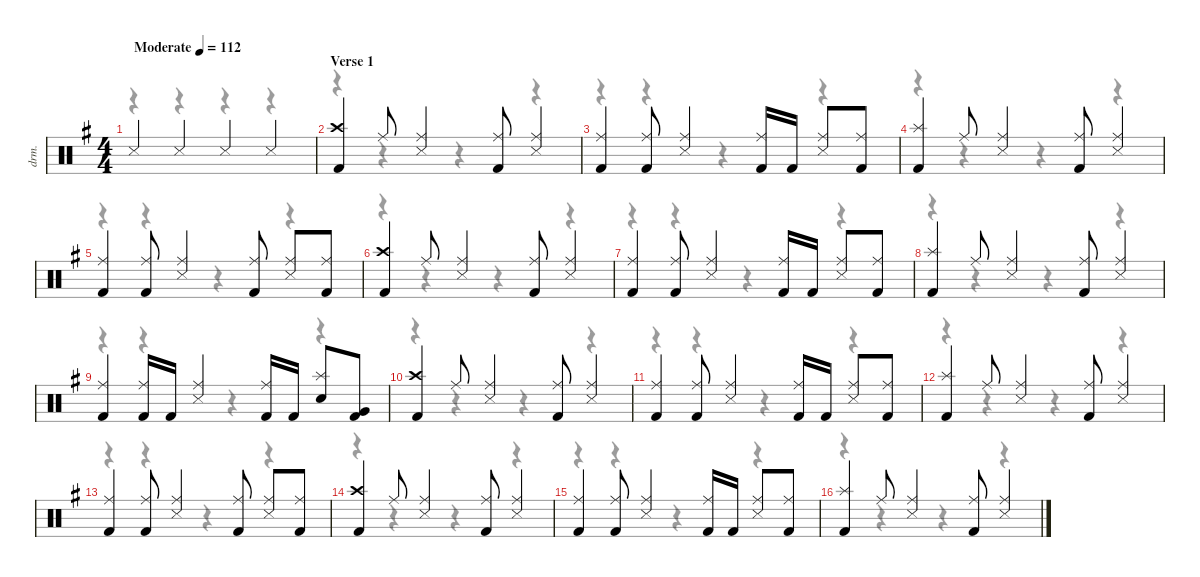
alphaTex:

\defaultSystemsLayout 4
\hideDynamics
\bracketExtendMode nobrackets
\track ("Drums" "drm.") {instrument percussion}
\staff {score}
\articulation defaults
\voice
\ts (4 4)
\beaming (8 2 2 2 2)
\tempo (112 "Moderate")
\clef neutral
\ks g "Snare (side stick) 3"{acc forcenatural}.4{dy f} "Snare (side stick) 3"{acc forcenatural}.4 "Snare (side stick) 3"{acc forcenatural}.4 "Snare (side stick) 3"{acc forcenatural}.4
|
\section ("" "Verse 1")
("Kick (hit) 2"{acc forcenatural} "Crash high (hit)"{acc forcenatural}).4{dy mf} "Ride (middle)"{acc forcenatural}.8 ("Ride (middle)"{acc forcenatural} "Snare (side stick) 3"{acc forcenatural}).4 ("Kick (hit) 2"{acc forcenatural} "Ride (middle)"{acc forcenatural}).8 ("Snare (side stick) 3"{acc forcenatural} "Ride (middle)"{acc forcenatural}).4 |
("Kick (hit) 2"{acc forcenatural} "Ride (middle)"{acc forcenatural}).4 ("Kick (hit) 2"{acc forcenatural} "Ride (middle)"{acc forcenatural}).8{dy f} ("Snare (side stick) 3"{acc forcenatural} "Ride (middle)"{acc forcenatural}).4{dy mf} ("Kick (hit) 2"{acc forcenatural} "Ride (middle)"{acc forcenatural}).16{dy f} "Kick (hit) 2"{acc forcenatural}.16{dy mf} ("Ride (middle)"{acc forcenatural} "Snare (side stick) 3"{acc forcenatural}).8 ("Kick (hit) 2"{acc forcenatural} "Ride (middle)"{acc forcenatural}).8 |
("Kick (hit) 2"{acc forcenatural} "Splash (hit)"{acc forcenatural}).4 "Ride (middle)"{acc forcenatural}.8 ("Ride (middle)"{acc forcenatural} "Snare (side stick) 3"{acc forcenatural}).4 ("Kick (hit) 2"{acc forcenatural} "Ride (middle)"{acc forcenatural}).8 ("Snare (side stick) 3"{acc forcenatural} "Ride (middle)"{acc forcenatural}).4 |
("Kick (hit) 2"{acc forcenatural} "Ride (middle)"{acc forcenatural}).4 ("Kick (hit) 2"{acc forcenatural} "Ride (middle)"{acc forcenatural}).8{dy f} ("Snare (side stick) 3"{acc forcenatural} "Ride (middle)"{acc forcenatural}).4{dy mf} ("Kick (hit) 2"{acc forcenatural} "Ride (middle)"{acc forcenatural}).8{dy f} ("Ride (middle)"{acc forcenatural} "Snare (side stick) 3"{acc forcenatural}).8{dy mf} ("Kick (hit) 2"{acc forcenatural} "Ride (middle)"{acc forcenatural}).8 |
("Kick (hit) 2"{acc forcenatural} "Crash high (hit)"{acc forcenatural}).4 "Ride (middle)"{acc forcenatural}.8 ("Ride (middle)"{acc forcenatural} "Snare (side stick) 3"{acc forcenatural}).4 ("Kick (hit) 2"{acc forcenatural} "Ride (middle)"{acc forcenatural}).8 ("Snare (side stick) 3"{acc forcenatural} "Ride (middle)"{acc forcenatural}).4 |
("Kick (hit) 2"{acc forcenatural} "Ride (middle)"{acc forcenatural}).4 ("Kick (hit) 2"{acc forcenatural} "Ride (middle)"{acc forcenatural}).8{dy f} ("Snare (side stick) 3"{acc forcenatural} "Ride (middle)"{acc forcenatural}).4{dy mf} ("Kick (hit) 2"{acc forcenatural} "Ride (middle)"{acc forcenatural}).16{dy f} "Kick (hit) 2"{acc forcenatural}.16{dy mf} ("Ride (middle)"{acc forcenatural} "Snare (side stick) 3"{acc forcenatural}).8 ("Kick (hit) 2"{acc forcenatural} "Ride (middle)"{acc forcenatural}).8 |
("Kick (hit) 2"{acc forcenatural} "Splash (hit)"{acc forcenatural}).4 "Ride (middle)"{acc forcenatural}.8 ("Ride (middle)"{acc forcenatural} "Snare (side stick) 3"{acc forcenatural}).4 ("Kick (hit) 2"{acc forcenatural} "Ride (middle)"{acc forcenatural}).8 ("Snare (side stick) 3"{acc forcenatural} "Ride (middle)"{acc forcenatural}).4 |
("Kick (hit) 2"{acc forcenatural} "Ride (middle)"{acc forcenatural}).4 ("Ride (middle)"{acc forcenatural} "Kick (hit) 2"{acc forcenatural}).16 "Kick (hit) 2"{acc forcenatural}.16 ("Snare (side stick) 3"{acc forcenatural} "Ride (middle)"{acc forcenatural}).4 ("Ride (middle)"{acc forcenatural} "Kick (hit) 2"{acc forcenatural}).16 "Kick (hit) 2"{acc forcenatural}.16 ("Snare (hit) 2"{acc forcenatural} "Splash (hit)"{acc forcenatural}).8 ("Kick (hit) 2"{acc forcenatural} "Very Low Tom (hit)"{acc forcenatural}).8 |
("Kick (hit) 2"{acc forcenatural} "Crash high (hit)"{acc forcenatural}).4 "Ride (middle)"{acc forcenatural}.8 ("Ride (middle)"{acc forcenatural} "Snare (side stick) 3"{acc forcenatural}).4 ("Kick (hit) 2"{acc forcenatural} "Ride (middle)"{acc forcenatural}).8 ("Snare (side stick) 3"{acc forcenatural} "Ride (middle)"{acc forcenatural}).4 |
("Kick (hit) 2"{acc forcenatural} "Ride (middle)"{acc forcenatural}).4 ("Kick (hit) 2"{acc forcenatural} "Ride (middle)"{acc forcenatural}).8{dy f} ("Snare (side stick) 3"{acc forcenatural} "Ride (middle)"{acc forcenatural}).4{dy mf} ("Kick (hit) 2"{acc forcenatural} "Ride (middle)"{acc forcenatural}).16{dy f} "Kick (hit) 2"{acc forcenatural}.16{dy mf} ("Ride (middle)"{acc forcenatural} "Snare (side stick) 3"{acc forcenatural}).8 ("Kick (hit) 2"{acc forcenatural} "Ride (middle)"{acc forcenatural}).8 |
("Kick (hit) 2"{acc forcenatural} "Splash (hit)"{acc forcenatural}).4 "Ride (middle)"{acc forcenatural}.8 ("Ride (middle)"{acc forcenatural} "Snare (side stick) 3"{acc forcenatural}).4 ("Kick (hit) 2"{acc forcenatural} "Ride (middle)"{acc forcenatural}).8 ("Snare (side stick) 3"{acc forcenatural} "Ride (middle)"{acc forcenatural}).4 |
("Kick (hit) 2"{acc forcenatural} "Ride (middle)"{acc forcenatural}).4 ("Kick (hit) 2"{acc forcenatural} "Ride (middle)"{acc forcenatural}).8{dy f} ("Snare (side stick) 3"{acc forcenatural} "Ride (middle)"{acc forcenatural}).4{dy mf} ("Kick (hit) 2"{acc forcenatural} "Ride (middle)"{acc forcenatural}).8{dy f} ("Ride (middle)"{acc forcenatural} "Snare (side stick) 3"{acc forcenatural}).8{dy mf} ("Kick (hit) 2"{acc forcenatural} "Ride (middle)"{acc forcenatural}).8 |
("Kick (hit) 2"{acc forcenatural} "Crash high (hit)"{acc forcenatural}).4 "Ride (middle)"{acc forcenatural}.8 ("Ride (middle)"{acc forcenatural} "Snare (side stick) 3"{acc forcenatural}).4 ("Kick (hit) 2"{acc forcenatural} "Ride (middle)"{acc forcenatural}).8 ("Snare (side stick) 3"{acc forcenatural} "Ride (middle)"{acc forcenatural}).4 |
("Kick (hit) 2"{acc forcenatural} "Ride (middle)"{acc forcenatural}).4 ("Kick (hit) 2"{acc forcenatural} "Ride (middle)"{acc forcenatural}).8{dy f} ("Snare (side stick) 3"{acc forcenatural} "Ride (middle)"{acc forcenatural}).4{dy mf} ("Kick (hit) 2"{acc forcenatural} "Ride (middle)"{acc forcenatural}).16{dy f} "Kick (hit) 2"{acc forcenatural}.16{dy mf} ("Ride (middle)"{acc forcenatural} "Snare (side stick) 3"{acc forcenatural}).8 ("Kick (hit) 2"{acc forcenatural} "Ride (middle)"{acc forcenatural}).8 |
("Kick (hit) 2"{acc forcenatural} "Splash (hit)"{acc forcenatural}).4 "Ride (middle)"{acc forcenatural}.8 ("Ride (middle)"{acc forcenatural} "Snare (side stick) 3"{acc forcenatural}).4 ("Kick (hit) 2"{acc forcenatural} "Ride (middle)"{acc forcenatural}).8 ("Snare (side stick) 3"{acc forcenatural} "Ride (middle)"{acc forcenatural}).4
\voice
\clef neutral
\ottava regular
\simile none
\ks g
r.4{dy mf} r.4 r.4 r.4 |
r.4 r.4 r.4 r.4 |
r.4 r.4 r.4 r.4 |
r.4 r.4 r.4 r.4 |
r.4 r.4 r.4 r.4 |
r.4 r.4 r.4 r.4 |
r.4 r.4 r.4 r.4 |
r.4 r.4 r.4 r.4 |
r.4 r.4 r.4 r.4 |
r.4 r.4 r.4 r.4 |
r.4 r.4 r.4 r.4 |
r.4 r.4 r.4 r.4 |
r.4 r.4 r.4 r.4 |
r.4 r.4 r.4 r.4 |
r.4 r.4 r.4 r.4 |
r.4 r.4 r.4 r.4
